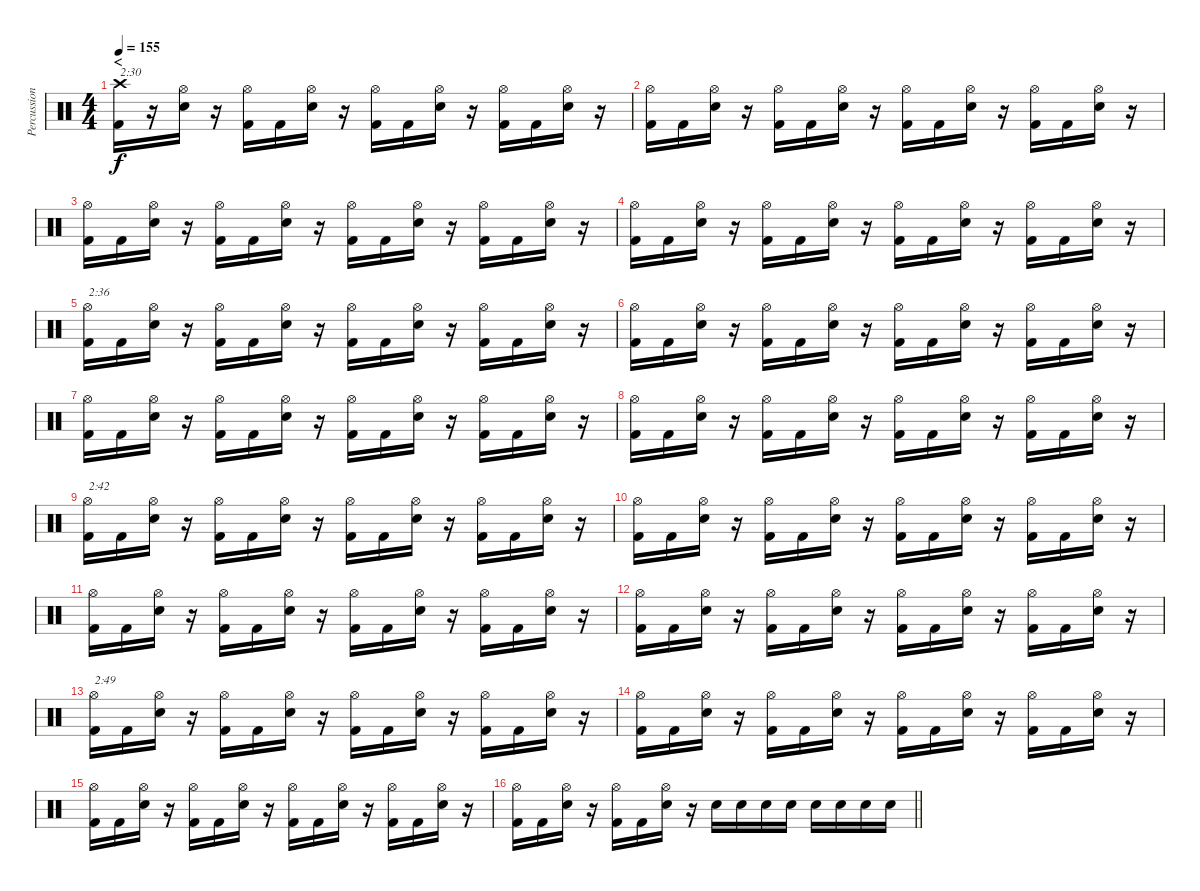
\track ("Percussion" "Percussion") {instrument percussion}
\staff {score}
\articulation defaults
\ts (4 4)
\section ("" "<")
\tempo 155
\clef neutral
\ks c
("Crash high (hit)" "Kick (hit) 2").16{txt "2:30" dy f} r.16 ("Hi-Hat (open)" "Snare (hit) 2").16 r.16 ("Hi-Hat (open)" "Kick (hit) 2").16 "Kick (hit) 2".16 ("Hi-Hat (open)" "Snare (hit) 2").16 r.16 ("Hi-Hat (open)" "Kick (hit) 2").16 "Kick (hit) 2".16 ("Hi-Hat (open)" "Snare (hit) 2").16 r.16 ("Hi-Hat (open)" "Kick (hit) 2").16 "Kick (hit) 2".16 ("Hi-Hat (open)" "Snare (hit) 2").16 r.16 |
("Hi-Hat (open)" "Kick (hit) 2").16 "Kick (hit) 2".16 ("Hi-Hat (open)" "Snare (hit) 2").16 r.16 ("Hi-Hat (open)" "Kick (hit) 2").16 "Kick (hit) 2".16 ("Hi-Hat (open)" "Snare (hit) 2").16 r.16 ("Hi-Hat (open)" "Kick (hit) 2").16 "Kick (hit) 2".16 ("Hi-Hat (open)" "Snare (hit) 2").16 r.16 ("Hi-Hat (open)" "Kick (hit) 2").16 "Kick (hit) 2".16 ("Hi-Hat (open)" "Snare (hit) 2").16 r.16 |
("Hi-Hat (open)" "Kick (hit) 2").16 "Kick (hit) 2".16 ("Hi-Hat (open)" "Snare (hit) 2").16 r.16 ("Hi-Hat (open)" "Kick (hit) 2").16 "Kick (hit) 2".16 ("Hi-Hat (open)" "Snare (hit) 2").16 r.16 ("Hi-Hat (open)" "Kick (hit) 2").16 "Kick (hit) 2".16 ("Hi-Hat (open)" "Snare (hit) 2").16 r.16 ("Hi-Hat (open)" "Kick (hit) 2").16 "Kick (hit) 2".16 ("Hi-Hat (open)" "Snare (hit) 2").16 r.16 |
("Hi-Hat (open)" "Kick (hit) 2").16 "Kick (hit) 2".16 ("Hi-Hat (open)" "Snare (hit) 2").16 r.16 ("Hi-Hat (open)" "Kick (hit) 2").16 "Kick (hit) 2".16 ("Hi-Hat (open)" "Snare (hit) 2").16 r.16 ("Hi-Hat (open)" "Kick (hit) 2").16 "Kick (hit) 2".16 ("Hi-Hat (open)" "Snare (hit) 2").16 r.16 ("Hi-Hat (open)" "Kick (hit) 2").16 "Kick (hit) 2".16 ("Hi-Hat (open)" "Snare (hit) 2").16 r.16 |
("Hi-Hat (open)" "Kick (hit) 2").16{txt "2:36"} "Kick (hit) 2".16 ("Hi-Hat (open)" "Snare (hit) 2").16 r.16 ("Hi-Hat (open)" "Kick (hit) 2").16 "Kick (hit) 2".16 ("Hi-Hat (open)" "Snare (hit) 2").16 r.16 ("Hi-Hat (open)" "Kick (hit) 2").16 "Kick (hit) 2".16 ("Hi-Hat (open)" "Snare (hit) 2").16 r.16 ("Hi-Hat (open)" "Kick (hit) 2").16 "Kick (hit) 2".16 ("Hi-Hat (open)" "Snare (hit) 2").16 r.16 |
("Hi-Hat (open)" "Kick (hit) 2").16 "Kick (hit) 2".16 ("Hi-Hat (open)" "Snare (hit) 2").16 r.16 ("Hi-Hat (open)" "Kick (hit) 2").16 "Kick (hit) 2".16 ("Hi-Hat (open)" "Snare (hit) 2").16 r.16 ("Hi-Hat (open)" "Kick (hit) 2").16 "Kick (hit) 2".16 ("Hi-Hat (open)" "Snare (hit) 2").16 r.16 ("Hi-Hat (open)" "Kick (hit) 2").16 "Kick (hit) 2".16 ("Hi-Hat (open)" "Snare (hit) 2").16 r.16 |
("Hi-Hat (open)" "Kick (hit) 2").16 "Kick (hit) 2".16 ("Hi-Hat (open)" "Snare (hit) 2").16 r.16 ("Hi-Hat (open)" "Kick (hit) 2").16 "Kick (hit) 2".16 ("Hi-Hat (open)" "Snare (hit) 2").16 r.16 ("Hi-Hat (open)" "Kick (hit) 2").16 "Kick (hit) 2".16 ("Hi-Hat (open)" "Snare (hit) 2").16 r.16 ("Hi-Hat (open)" "Kick (hit) 2").16 "Kick (hit) 2".16 ("Hi-Hat (open)" "Snare (hit) 2").16 r.16 |
("Hi-Hat (open)" "Kick (hit) 2").16 "Kick (hit) 2".16 ("Hi-Hat (open)" "Snare (hit) 2").16 r.16 ("Hi-Hat (open)" "Kick (hit) 2").16 "Kick (hit) 2".16 ("Hi-Hat (open)" "Snare (hit) 2").16 r.16 ("Hi-Hat (open)" "Kick (hit) 2").16 "Kick (hit) 2".16 ("Hi-Hat (open)" "Snare (hit) 2").16 r.16 ("Hi-Hat (open)" "Kick (hit) 2").16 "Kick (hit) 2".16 ("Hi-Hat (open)" "Snare (hit) 2").16 r.16 |
("Hi-Hat (open)" "Kick (hit) 2").16{txt "2:42"} "Kick (hit) 2".16 ("Hi-Hat (open)" "Snare (hit) 2").16 r.16 ("Hi-Hat (open)" "Kick (hit) 2").16 "Kick (hit) 2".16 ("Hi-Hat (open)" "Snare (hit) 2").16 r.16 ("Hi-Hat (open)" "Kick (hit) 2").16 "Kick (hit) 2".16 ("Hi-Hat (open)" "Snare (hit) 2").16 r.16 ("Hi-Hat (open)" "Kick (hit) 2").16 "Kick (hit) 2".16 ("Hi-Hat (open)" "Snare (hit) 2").16 r.16 |
("Hi-Hat (open)" "Kick (hit) 2").16 "Kick (hit) 2".16 ("Hi-Hat (open)" "Snare (hit) 2").16 r.16 ("Hi-Hat (open)" "Kick (hit) 2").16 "Kick (hit) 2".16 ("Hi-Hat (open)" "Snare (hit) 2").16 r.16 ("Hi-Hat (open)" "Kick (hit) 2").16 "Kick (hit) 2".16 ("Hi-Hat (open)" "Snare (hit) 2").16 r.16 ("Hi-Hat (open)" "Kick (hit) 2").16 "Kick (hit) 2".16 ("Hi-Hat (open)" "Snare (hit) 2").16 r.16 |
("Hi-Hat (open)" "Kick (hit) 2").16 "Kick (hit) 2".16 ("Hi-Hat (open)" "Snare (hit) 2").16 r.16 ("Hi-Hat (open)" "Kick (hit) 2").16 "Kick (hit) 2".16 ("Hi-Hat (open)" "Snare (hit) 2").16 r.16 ("Hi-Hat (open)" "Kick (hit) 2").16 "Kick (hit) 2".16 ("Hi-Hat (open)" "Snare (hit) 2").16 r.16 ("Hi-Hat (open)" "Kick (hit) 2").16 "Kick (hit) 2".16 ("Hi-Hat (open)" "Snare (hit) 2").16 r.16 |
("Hi-Hat (open)" "Kick (hit) 2").16 "Kick (hit) 2".16 ("Hi-Hat (open)" "Snare (hit) 2").16 r.16 ("Hi-Hat (open)" "Kick (hit) 2").16 "Kick (hit) 2".16 ("Hi-Hat (open)" "Snare (hit) 2").16 r.16 ("Hi-Hat (open)" "Kick (hit) 2").16 "Kick (hit) 2".16 ("Hi-Hat (open)" "Snare (hit) 2").16 r.16 ("Hi-Hat (open)" "Kick (hit) 2").16 "Kick (hit) 2".16 ("Hi-Hat (open)" "Snare (hit) 2").16 r.16 |
("Hi-Hat (open)" "Kick (hit) 2").16{txt "2:49"} "Kick (hit) 2".16 ("Hi-Hat (open)" "Snare (hit) 2").16 r.16 ("Hi-Hat (open)" "Kick (hit) 2").16 "Kick (hit) 2".16 ("Hi-Hat (open)" "Snare (hit) 2").16 r.16 ("Hi-Hat (open)" "Kick (hit) 2").16 "Kick (hit) 2".16 ("Hi-Hat (open)" "Snare (hit) 2").16 r.16 ("Hi-Hat (open)" "Kick (hit) 2").16 "Kick (hit) 2".16 ("Hi-Hat (open)" "Snare (hit) 2").16 r.16 |
("Hi-Hat (open)" "Kick (hit) 2").16 "Kick (hit) 2".16 ("Hi-Hat (open)" "Snare (hit) 2").16 r.16 ("Hi-Hat (open)" "Kick (hit) 2").16 "Kick (hit) 2".16 ("Hi-Hat (open)" "Snare (hit) 2").16 r.16 ("Hi-Hat (open)" "Kick (hit) 2").16 "Kick (hit) 2".16 ("Hi-Hat (open)" "Snare (hit) 2").16 r.16 ("Hi-Hat (open)" "Kick (hit) 2").16 "Kick (hit) 2".16 ("Hi-Hat (open)" "Snare (hit) 2").16 r.16 |
("Hi-Hat (open)" "Kick (hit) 2").16 "Kick (hit) 2".16 ("Hi-Hat (open)" "Snare (hit) 2").16 r.16 ("Hi-Hat (open)" "Kick (hit) 2").16 "Kick (hit) 2".16 ("Hi-Hat (open)" "Snare (hit) 2").16 r.16 ("Hi-Hat (open)" "Kick (hit) 2").16 "Kick (hit) 2".16 ("Hi-Hat (open)" "Snare (hit) 2").16 r.16 ("Hi-Hat (open)" "Kick (hit) 2").16 "Kick (hit) 2".16 ("Hi-Hat (open)" "Snare (hit) 2").16 r.16 |
\barLineRight lightlight
("Hi-Hat (open)" "Kick (hit) 2").16 "Kick (hit) 2".16 ("Hi-Hat (open)" "Snare (hit) 2").16 r.16 ("Hi-Hat (open)" "Kick (hit) 2").16 "Kick (hit) 2".16 ("Hi-Hat (open)" "Snare (hit) 2").16 r.16 "Snare (hit) 2".16 "Snare (hit) 2".16 "Snare (hit) 2".16 "Snare (hit) 2".16 "Snare (hit) 2".16 "Snare (hit) 2".16 "Snare (hit) 2".16 "Snare (hit) 2".16
